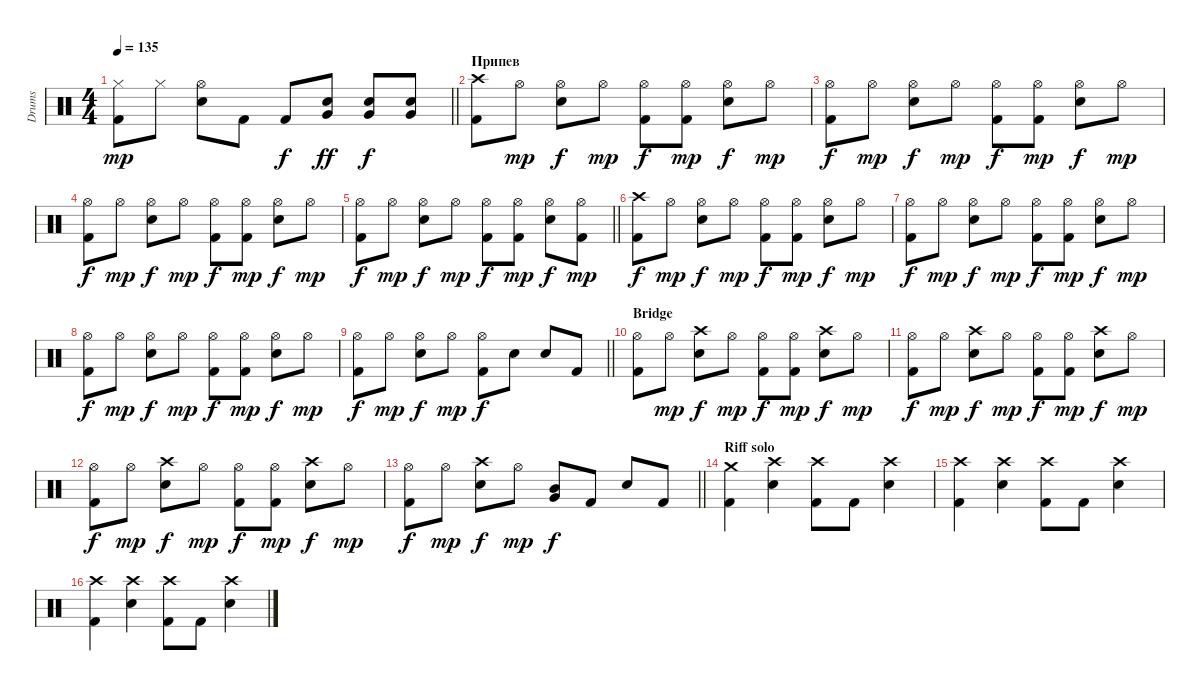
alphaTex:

\track ("Drums" "Drums") {instrument percussion}
\staff {score}
\articulation defaults
\ts (4 4)
\tempo 135
\clef neutral
\barLineRight lightlight
\ks aminor
("Hi-Hat (closed)" "Kick (hit) 2").8{dy mp} "Hi-Hat (closed)".8 ("Hi-Hat (open)" "Electric Snare (hit)").8 "Kick (hit) 2".8 "Kick (hit) 2".8{dy f} ("Electric Snare (hit)" "Very Low Tom (hit)").8{dy ff} ("Electric Snare (hit)" "Very Low Tom (hit)").8{dy f} ("Electric Snare (hit)" "Very Low Tom (hit)").8 |
\section ("" "Припев ")
("Crash high (hit)" "Kick (hit) 2").8 "Hi-Hat (open)".8{dy mp} ("Hi-Hat (open)" "Electric Snare (hit)").8{dy f} "Hi-Hat (open)".8{dy mp} ("Hi-Hat (open)" "Kick (hit) 2").8{dy f} ("Hi-Hat (open)" "Kick (hit) 2").8{dy mp} ("Hi-Hat (open)" "Electric Snare (hit)").8{dy f} "Hi-Hat (open)".8{dy mp} |
("Hi-Hat (open)" "Kick (hit) 2").8{dy f} "Hi-Hat (open)".8{dy mp} ("Hi-Hat (open)" "Electric Snare (hit)").8{dy f} "Hi-Hat (open)".8{dy mp} ("Hi-Hat (open)" "Kick (hit) 2").8{dy f} ("Hi-Hat (open)" "Kick (hit) 2").8{dy mp} ("Hi-Hat (open)" "Electric Snare (hit)").8{dy f} "Hi-Hat (open)".8{dy mp} |
("Hi-Hat (open)" "Kick (hit) 2").8{dy f} "Hi-Hat (open)".8{dy mp} ("Hi-Hat (open)" "Electric Snare (hit)").8{dy f} "Hi-Hat (open)".8{dy mp} ("Hi-Hat (open)" "Kick (hit) 2").8{dy f} ("Hi-Hat (open)" "Kick (hit) 2").8{dy mp} ("Hi-Hat (open)" "Electric Snare (hit)").8{dy f} "Hi-Hat (open)".8{dy mp} |
\barLineRight lightlight
("Hi-Hat (open)" "Kick (hit) 2").8{dy f} "Hi-Hat (open)".8{dy mp} ("Hi-Hat (open)" "Electric Snare (hit)").8{dy f} "Hi-Hat (open)".8{dy mp} ("Hi-Hat (open)" "Kick (hit) 2").8{dy f} ("Hi-Hat (open)" "Kick (hit) 2").8{dy mp} ("Hi-Hat (open)" "Electric Snare (hit)").8{dy f} ("Hi-Hat (open)" "Kick (hit) 2").8{dy mp} |
("Crash high (hit)" "Kick (hit) 2").8{dy f} "Hi-Hat (open)".8{dy mp} ("Hi-Hat (open)" "Electric Snare (hit)").8{dy f} "Hi-Hat (open)".8{dy mp} ("Hi-Hat (open)" "Kick (hit) 2").8{dy f} ("Hi-Hat (open)" "Kick (hit) 2").8{dy mp} ("Hi-Hat (open)" "Electric Snare (hit)").8{dy f} "Hi-Hat (open)".8{dy mp} |
("Hi-Hat (open)" "Kick (hit) 2").8{dy f} "Hi-Hat (open)".8{dy mp} ("Hi-Hat (open)" "Electric Snare (hit)").8{dy f} "Hi-Hat (open)".8{dy mp} ("Hi-Hat (open)" "Kick (hit) 2").8{dy f} ("Hi-Hat (open)" "Kick (hit) 2").8{dy mp} ("Hi-Hat (open)" "Electric Snare (hit)").8{dy f} "Hi-Hat (open)".8{dy mp} |
("Hi-Hat (open)" "Kick (hit) 2").8{dy f} "Hi-Hat (open)".8{dy mp} ("Hi-Hat (open)" "Electric Snare (hit)").8{dy f} "Hi-Hat (open)".8{dy mp} ("Hi-Hat (open)" "Kick (hit) 2").8{dy f} ("Hi-Hat (open)" "Kick (hit) 2").8{dy mp} ("Hi-Hat (open)" "Electric Snare (hit)").8{dy f} "Hi-Hat (open)".8{dy mp} |
\barLineRight lightlight
("Hi-Hat (open)" "Kick (hit) 2").8{dy f} "Hi-Hat (open)".8{dy mp} ("Hi-Hat (open)" "Electric Snare (hit)").8{dy f} "Hi-Hat (open)".8{dy mp} ("Hi-Hat (open)" "Kick (hit) 2").8{dy f} "Electric Snare (hit)".8 "Electric Snare (hit)".8 "Kick (hit) 2".8 |
\section ("" "Bridge")
("Hi-Hat (open)" "Kick (hit) 2").8 "Hi-Hat (open)".8{dy mp} ("Crash high (hit)" "Electric Snare (hit)").8{dy f} "Hi-Hat (open)".8{dy mp} ("Hi-Hat (open)" "Kick (hit) 2").8{dy f} ("Hi-Hat (open)" "Kick (hit) 2").8{dy mp} ("Crash high (hit)" "Electric Snare (hit)").8{dy f} "Hi-Hat (open)".8{dy mp} |
("Hi-Hat (open)" "Kick (hit) 2").8{dy f} "Hi-Hat (open)".8{dy mp} ("Crash high (hit)" "Electric Snare (hit)").8{dy f} "Hi-Hat (open)".8{dy mp} ("Hi-Hat (open)" "Kick (hit) 2").8{dy f} ("Hi-Hat (open)" "Kick (hit) 2").8{dy mp} ("Crash high (hit)" "Electric Snare (hit)").8{dy f} "Hi-Hat (open)".8{dy mp} |
("Hi-Hat (open)" "Kick (hit) 2").8{dy f} "Hi-Hat (open)".8{dy mp} ("Crash high (hit)" "Electric Snare (hit)").8{dy f} "Hi-Hat (open)".8{dy mp} ("Hi-Hat (open)" "Kick (hit) 2").8{dy f} ("Hi-Hat (open)" "Kick (hit) 2").8{dy mp} ("Crash high (hit)" "Electric Snare (hit)").8{dy f} "Hi-Hat (open)".8{dy mp} |
\barLineRight lightlight
("Hi-Hat (open)" "Kick (hit) 2").8{dy f} "Hi-Hat (open)".8{dy mp} ("Crash high (hit)" "Electric Snare (hit)").8{dy f} "Hi-Hat (open)".8{dy mp} ("Mid Tom (hit)" "Very Low Tom (hit)").8{dy f} "Kick (hit) 2".8 "Electric Snare (hit)".8 "Kick (hit) 2".8 |
\section ("" "Riff solo")
("Crash medium (hit)" "Kick (hit) 2").4 ("Crash high (hit)" "Electric Snare (hit)").4 ("Crash high (hit)" "Kick (hit) 2").8 "Kick (hit) 2".8 ("Crash high (hit)" "Electric Snare (hit)").4 |
("Crash high (hit)" "Kick (hit) 2").4 ("Crash high (hit)" "Electric Snare (hit)").4 ("Crash high (hit)" "Kick (hit) 2").8 "Kick (hit) 2".8 ("Crash high (hit)" "Electric Snare (hit)").4 |
("Crash high (hit)" "Kick (hit) 2").4 ("Crash high (hit)" "Electric Snare (hit)").4 ("Crash high (hit)" "Kick (hit) 2").8 "Kick (hit) 2".8 ("Crash high (hit)" "Electric Snare (hit)").4
